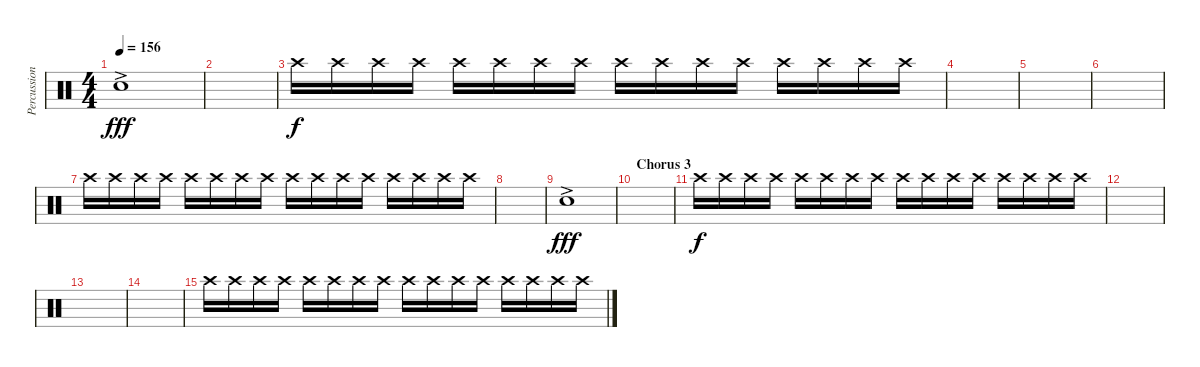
\track ("Percussion" "Percussion") {instrument percussion}
\staff {score}
\articulation defaults
\ts (4 4)
\tempo 156
\clef neutral
\ks c "Hand Clap (hit)"{ac}.1{dy fff volume 16}
|
|
"Crash high (hit)".16{dy f volume 6} "Crash high (hit)".16 "Crash high (hit)".16 "Crash high (hit)".16 "Crash high (hit)".16 "Crash high (hit)".16 "Crash high (hit)".16 "Crash high (hit)".16 "Crash high (hit)".16 "Crash high (hit)".16 "Crash high (hit)".16 "Crash high (hit)".16 "Crash high (hit)".16 "Crash high (hit)".16 "Crash high (hit)".16 "Crash high (hit)".16 |
|
|
|
"Crash high (hit)".16 "Crash high (hit)".16 "Crash high (hit)".16 "Crash high (hit)".16 "Crash high (hit)".16 "Crash high (hit)".16 "Crash high (hit)".16 "Crash high (hit)".16 "Crash high (hit)".16 "Crash high (hit)".16 "Crash high (hit)".16 "Crash high (hit)".16 "Crash high (hit)".16 "Crash high (hit)".16 "Crash high (hit)".16 "Crash high (hit)".16 |
|
"Hand Clap (hit)"{ac}.1{dy fff volume 16} |
\section ("" "Chorus 3")
|
"Crash high (hit)".16{dy f volume 6} "Crash high (hit)".16 "Crash high (hit)".16 "Crash high (hit)".16 "Crash high (hit)".16 "Crash high (hit)".16 "Crash high (hit)".16 "Crash high (hit)".16 "Crash high (hit)".16 "Crash high (hit)".16 "Crash high (hit)".16 "Crash high (hit)".16 "Crash high (hit)".16 "Crash high (hit)".16 "Crash high (hit)".16 "Crash high (hit)".16 |
|
|
|
"Crash high (hit)".16 "Crash high (hit)".16 "Crash high (hit)".16 "Crash high (hit)".16 "Crash high (hit)".16 "Crash high (hit)".16 "Crash high (hit)".16 "Crash high (hit)".16 "Crash high (hit)".16 "Crash high (hit)".16 "Crash high (hit)".16 "Crash high (hit)".16 "Crash high (hit)".16 "Crash high (hit)".16 "Crash high (hit)".16 "Crash high (hit)".16
